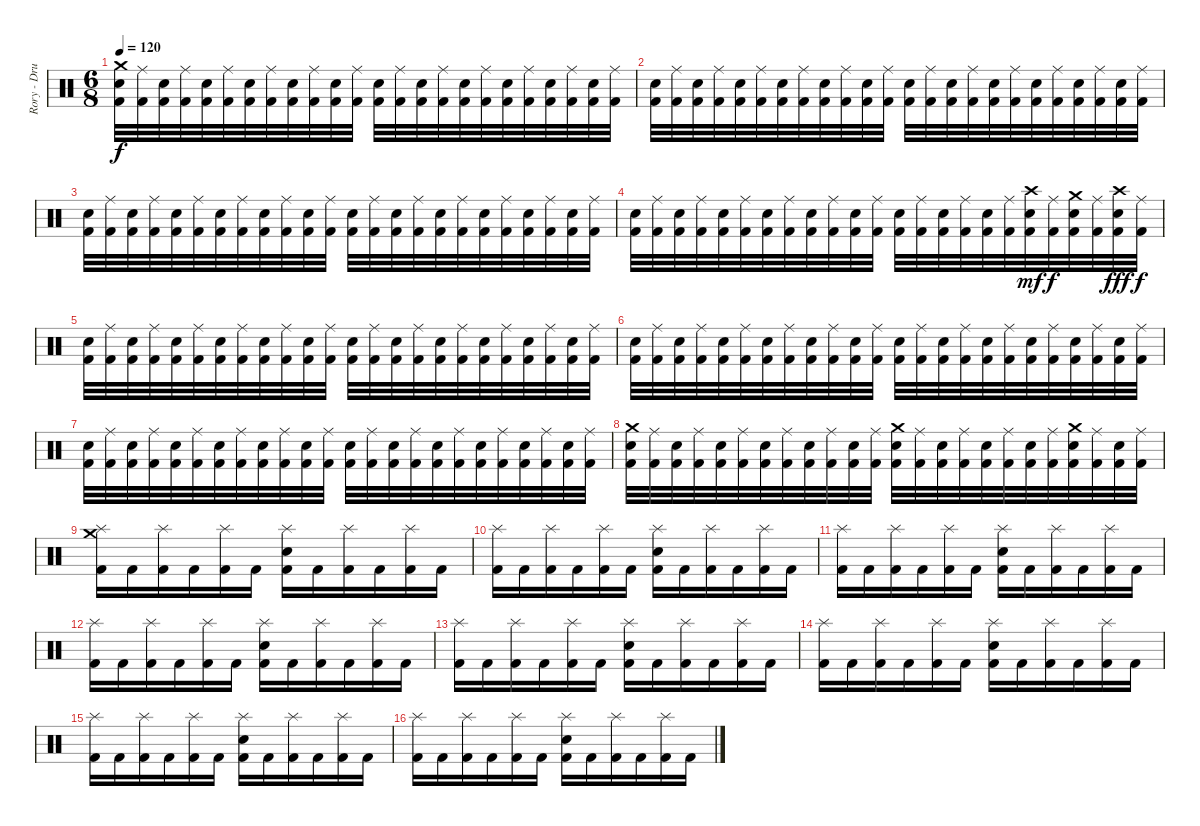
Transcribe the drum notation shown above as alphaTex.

\track ("Rory - Drums" "Rory - Dru") {instrument percussion}
\staff {score}
\articulation defaults
\ts (6 8)
\tempo 120
\clef neutral
\ks c
("Kick (hit) 2" "Electric Snare (hit)" "Crash medium (hit)").32{dy f} ("Kick (hit) 2" "Ride (middle)").32 ("Kick (hit) 2" "Electric Snare (hit)").32 ("Kick (hit) 2" "Ride (middle)").32 ("Kick (hit) 2" "Electric Snare (hit)").32 ("Kick (hit) 2" "Ride (middle)").32 ("Kick (hit) 2" "Electric Snare (hit)").32 ("Kick (hit) 2" "Ride (middle)").32 ("Kick (hit) 2" "Electric Snare (hit)").32 ("Kick (hit) 2" "Ride (middle)").32 ("Kick (hit) 2" "Electric Snare (hit)").32 ("Kick (hit) 2" "Ride (middle)").32 ("Kick (hit) 2" "Electric Snare (hit)").32 ("Kick (hit) 2" "Ride (middle)").32 ("Kick (hit) 2" "Electric Snare (hit)").32 ("Kick (hit) 2" "Ride (middle)").32 ("Kick (hit) 2" "Electric Snare (hit)").32 ("Kick (hit) 2" "Ride (middle)").32 ("Kick (hit) 2" "Electric Snare (hit)").32 ("Kick (hit) 2" "Ride (middle)").32 ("Kick (hit) 2" "Electric Snare (hit)").32 ("Kick (hit) 2" "Ride (middle)").32 ("Kick (hit) 2" "Electric Snare (hit)").32 ("Kick (hit) 2" "Ride (middle)").32 |
("Kick (hit) 2" "Electric Snare (hit)").32 ("Kick (hit) 2" "Ride (middle)").32 ("Kick (hit) 2" "Electric Snare (hit)").32 ("Kick (hit) 2" "Ride (middle)").32 ("Kick (hit) 2" "Electric Snare (hit)").32 ("Kick (hit) 2" "Ride (middle)").32 ("Kick (hit) 2" "Electric Snare (hit)").32 ("Kick (hit) 2" "Ride (middle)").32 ("Kick (hit) 2" "Electric Snare (hit)").32 ("Kick (hit) 2" "Ride (middle)").32 ("Kick (hit) 2" "Electric Snare (hit)").32 ("Kick (hit) 2" "Ride (middle)").32 ("Kick (hit) 2" "Electric Snare (hit)").32 ("Kick (hit) 2" "Ride (middle)").32 ("Kick (hit) 2" "Electric Snare (hit)").32 ("Kick (hit) 2" "Ride (middle)").32 ("Kick (hit) 2" "Electric Snare (hit)").32 ("Kick (hit) 2" "Ride (middle)").32 ("Kick (hit) 2" "Electric Snare (hit)").32 ("Kick (hit) 2" "Ride (middle)").32 ("Kick (hit) 2" "Electric Snare (hit)").32 ("Kick (hit) 2" "Ride (middle)").32 ("Kick (hit) 2" "Electric Snare (hit)").32 ("Kick (hit) 2" "Ride (middle)").32 |
("Kick (hit) 2" "Electric Snare (hit)").32 ("Kick (hit) 2" "Ride (middle)").32 ("Kick (hit) 2" "Electric Snare (hit)").32 ("Kick (hit) 2" "Ride (middle)").32 ("Kick (hit) 2" "Electric Snare (hit)").32 ("Kick (hit) 2" "Ride (middle)").32 ("Kick (hit) 2" "Electric Snare (hit)").32 ("Kick (hit) 2" "Ride (middle)").32 ("Kick (hit) 2" "Electric Snare (hit)").32 ("Kick (hit) 2" "Ride (middle)").32 ("Kick (hit) 2" "Electric Snare (hit)").32 ("Kick (hit) 2" "Ride (middle)").32 ("Kick (hit) 2" "Electric Snare (hit)").32 ("Kick (hit) 2" "Ride (middle)").32 ("Kick (hit) 2" "Electric Snare (hit)").32 ("Kick (hit) 2" "Ride (middle)").32 ("Kick (hit) 2" "Electric Snare (hit)").32 ("Kick (hit) 2" "Ride (middle)").32 ("Kick (hit) 2" "Electric Snare (hit)").32 ("Kick (hit) 2" "Ride (middle)").32 ("Kick (hit) 2" "Electric Snare (hit)").32 ("Kick (hit) 2" "Ride (middle)").32 ("Kick (hit) 2" "Electric Snare (hit)").32 ("Kick (hit) 2" "Ride (middle)").32 |
("Kick (hit) 2" "Electric Snare (hit)").32 ("Kick (hit) 2" "Ride (middle)").32 ("Kick (hit) 2" "Electric Snare (hit)").32 ("Kick (hit) 2" "Ride (middle)").32 ("Kick (hit) 2" "Electric Snare (hit)").32 ("Kick (hit) 2" "Ride (middle)").32 ("Kick (hit) 2" "Electric Snare (hit)").32 ("Kick (hit) 2" "Ride (middle)").32 ("Kick (hit) 2" "Electric Snare (hit)").32 ("Kick (hit) 2" "Ride (middle)").32 ("Kick (hit) 2" "Electric Snare (hit)").32 ("Kick (hit) 2" "Ride (middle)").32 ("Kick (hit) 2" "Electric Snare (hit)").32 ("Kick (hit) 2" "Ride (middle)").32 ("Kick (hit) 2" "Electric Snare (hit)").32 ("Kick (hit) 2" "Ride (middle)").32 ("Kick (hit) 2" "Electric Snare (hit)").32 ("Kick (hit) 2" "Ride (middle)").32 ("Kick (hit) 2" "Crash high (hit)" "Electric Snare (hit)").32{dy mf} ("Kick (hit) 2" "Ride (middle)").32{dy f} ("Kick (hit) 2" "Crash medium (hit)" "Electric Snare (hit)").32 ("Kick (hit) 2" "Ride (middle)").32 ("Kick (hit) 2" "Crash high (hit)" "Electric Snare (hit)").32{dy fff} ("Kick (hit) 2" "Ride (middle)").32{dy f} |
("Kick (hit) 2" "Electric Snare (hit)").32 ("Kick (hit) 2" "Ride (middle)").32 ("Kick (hit) 2" "Electric Snare (hit)").32 ("Kick (hit) 2" "Ride (middle)").32 ("Kick (hit) 2" "Electric Snare (hit)").32 ("Kick (hit) 2" "Ride (middle)").32 ("Kick (hit) 2" "Electric Snare (hit)").32 ("Kick (hit) 2" "Ride (middle)").32 ("Kick (hit) 2" "Electric Snare (hit)").32 ("Kick (hit) 2" "Ride (middle)").32 ("Kick (hit) 2" "Electric Snare (hit)").32 ("Kick (hit) 2" "Ride (middle)").32 ("Kick (hit) 2" "Electric Snare (hit)").32 ("Kick (hit) 2" "Ride (middle)").32 ("Kick (hit) 2" "Electric Snare (hit)").32 ("Kick (hit) 2" "Ride (middle)").32 ("Kick (hit) 2" "Electric Snare (hit)").32 ("Kick (hit) 2" "Ride (middle)").32 ("Kick (hit) 2" "Electric Snare (hit)").32 ("Kick (hit) 2" "Ride (middle)").32 ("Kick (hit) 2" "Electric Snare (hit)").32 ("Kick (hit) 2" "Ride (middle)").32 ("Kick (hit) 2" "Electric Snare (hit)").32 ("Kick (hit) 2" "Ride (middle)").32 |
("Kick (hit) 2" "Electric Snare (hit)").32 ("Kick (hit) 2" "Ride (middle)").32 ("Kick (hit) 2" "Electric Snare (hit)").32 ("Kick (hit) 2" "Ride (middle)").32 ("Kick (hit) 2" "Electric Snare (hit)").32 ("Kick (hit) 2" "Ride (middle)").32 ("Kick (hit) 2" "Electric Snare (hit)").32 ("Kick (hit) 2" "Ride (middle)").32 ("Kick (hit) 2" "Electric Snare (hit)").32 ("Kick (hit) 2" "Ride (middle)").32 ("Kick (hit) 2" "Electric Snare (hit)").32 ("Kick (hit) 2" "Ride (middle)").32 ("Kick (hit) 2" "Electric Snare (hit)").32 ("Kick (hit) 2" "Ride (middle)").32 ("Kick (hit) 2" "Electric Snare (hit)").32 ("Kick (hit) 2" "Ride (middle)").32 ("Kick (hit) 2" "Electric Snare (hit)").32 ("Kick (hit) 2" "Ride (middle)").32 ("Kick (hit) 2" "Electric Snare (hit)").32 ("Kick (hit) 2" "Ride (middle)").32 ("Kick (hit) 2" "Electric Snare (hit)").32 ("Kick (hit) 2" "Ride (middle)").32 ("Kick (hit) 2" "Electric Snare (hit)").32 ("Kick (hit) 2" "Ride (middle)").32 |
("Kick (hit) 2" "Electric Snare (hit)").32 ("Kick (hit) 2" "Ride (middle)").32 ("Kick (hit) 2" "Electric Snare (hit)").32 ("Kick (hit) 2" "Ride (middle)").32 ("Kick (hit) 2" "Electric Snare (hit)").32 ("Kick (hit) 2" "Ride (middle)").32 ("Kick (hit) 2" "Electric Snare (hit)").32 ("Kick (hit) 2" "Ride (middle)").32 ("Kick (hit) 2" "Electric Snare (hit)").32 ("Kick (hit) 2" "Ride (middle)").32 ("Kick (hit) 2" "Electric Snare (hit)").32 ("Kick (hit) 2" "Ride (middle)").32 ("Kick (hit) 2" "Electric Snare (hit)").32 ("Kick (hit) 2" "Ride (middle)").32 ("Kick (hit) 2" "Electric Snare (hit)").32 ("Kick (hit) 2" "Ride (middle)").32 ("Kick (hit) 2" "Electric Snare (hit)").32 ("Kick (hit) 2" "Ride (middle)").32 ("Kick (hit) 2" "Electric Snare (hit)").32 ("Kick (hit) 2" "Ride (middle)").32 ("Kick (hit) 2" "Electric Snare (hit)").32 ("Kick (hit) 2" "Ride (middle)").32 ("Kick (hit) 2" "Electric Snare (hit)").32 ("Kick (hit) 2" "Ride (middle)").32 |
("Kick (hit) 2" "Electric Snare (hit)" "Crash medium (hit)").32 ("Kick (hit) 2" "Ride (middle)").32 ("Kick (hit) 2" "Electric Snare (hit)").32 ("Kick (hit) 2" "Ride (middle)").32 ("Kick (hit) 2" "Electric Snare (hit)").32 ("Kick (hit) 2" "Ride (middle)").32 ("Kick (hit) 2" "Electric Snare (hit)").32 ("Kick (hit) 2" "Ride (middle)").32 ("Kick (hit) 2" "Electric Snare (hit)").32 ("Kick (hit) 2" "Ride (middle)").32 ("Kick (hit) 2" "Electric Snare (hit)").32 ("Kick (hit) 2" "Ride (middle)").32 ("Kick (hit) 2" "Crash medium (hit)" "Electric Snare (hit)").32 ("Kick (hit) 2" "Ride (middle)").32 ("Kick (hit) 2" "Electric Snare (hit)").32 ("Kick (hit) 2" "Ride (middle)").32 ("Kick (hit) 2" "Electric Snare (hit)").32 ("Kick (hit) 2" "Ride (middle)").32 ("Kick (hit) 2" "Electric Snare (hit)").32 ("Kick (hit) 2" "Ride (middle)").32 ("Kick (hit) 2" "Crash medium (hit)" "Electric Snare (hit)").32 ("Kick (hit) 2" "Ride (middle)").32 ("Kick (hit) 2" "Electric Snare (hit)").32 ("Kick (hit) 2" "Ride (middle)").32 |
("Kick (hit) 2" "Crash medium (hit)" "Splash (hit)").16 "Kick (hit) 2".16 ("Kick (hit) 2" "Splash (hit)").16 "Kick (hit) 2".16 ("Kick (hit) 2" "Splash (hit)").16 "Kick (hit) 2".16 ("Kick (hit) 2" "Electric Snare (hit)" "Splash (hit)").16 "Kick (hit) 2".16 ("Kick (hit) 2" "Splash (hit)").16 "Kick (hit) 2".16 ("Kick (hit) 2" "Splash (hit)").16 "Kick (hit) 2".16 |
("Kick (hit) 2" "Splash (hit)").16 "Kick (hit) 2".16 ("Kick (hit) 2" "Splash (hit)").16 "Kick (hit) 2".16 ("Kick (hit) 2" "Splash (hit)").16 "Kick (hit) 2".16 ("Kick (hit) 2" "Electric Snare (hit)" "Splash (hit)").16 "Kick (hit) 2".16 ("Kick (hit) 2" "Splash (hit)").16 "Kick (hit) 2".16 ("Kick (hit) 2" "Splash (hit)").16 "Kick (hit) 2".16 |
("Kick (hit) 2" "Splash (hit)").16 "Kick (hit) 2".16 ("Kick (hit) 2" "Splash (hit)").16 "Kick (hit) 2".16 ("Kick (hit) 2" "Splash (hit)").16 "Kick (hit) 2".16 ("Kick (hit) 2" "Electric Snare (hit)" "Splash (hit)").16 "Kick (hit) 2".16 ("Kick (hit) 2" "Splash (hit)").16 "Kick (hit) 2".16 ("Kick (hit) 2" "Splash (hit)").16 "Kick (hit) 2".16 |
("Kick (hit) 2" "Splash (hit)").16 "Kick (hit) 2".16 ("Kick (hit) 2" "Splash (hit)").16 "Kick (hit) 2".16 ("Kick (hit) 2" "Splash (hit)").16 "Kick (hit) 2".16 ("Kick (hit) 2" "Electric Snare (hit)" "Splash (hit)").16 "Kick (hit) 2".16 ("Kick (hit) 2" "Splash (hit)").16 "Kick (hit) 2".16 ("Kick (hit) 2" "Splash (hit)").16 "Kick (hit) 2".16 |
("Kick (hit) 2" "Splash (hit)").16 "Kick (hit) 2".16 ("Kick (hit) 2" "Splash (hit)").16 "Kick (hit) 2".16 ("Kick (hit) 2" "Splash (hit)").16 "Kick (hit) 2".16 ("Kick (hit) 2" "Electric Snare (hit)" "Splash (hit)").16 "Kick (hit) 2".16 ("Kick (hit) 2" "Splash (hit)").16 "Kick (hit) 2".16 ("Kick (hit) 2" "Splash (hit)").16 "Kick (hit) 2".16 |
("Kick (hit) 2" "Splash (hit)").16 "Kick (hit) 2".16 ("Kick (hit) 2" "Splash (hit)").16 "Kick (hit) 2".16 ("Kick (hit) 2" "Splash (hit)").16 "Kick (hit) 2".16 ("Kick (hit) 2" "Electric Snare (hit)" "Splash (hit)").16 "Kick (hit) 2".16 ("Kick (hit) 2" "Splash (hit)").16 "Kick (hit) 2".16 ("Kick (hit) 2" "Splash (hit)").16 "Kick (hit) 2".16 |
("Kick (hit) 2" "Splash (hit)").16 "Kick (hit) 2".16 ("Kick (hit) 2" "Splash (hit)").16 "Kick (hit) 2".16 ("Kick (hit) 2" "Splash (hit)").16 "Kick (hit) 2".16 ("Kick (hit) 2" "Electric Snare (hit)" "Splash (hit)").16 "Kick (hit) 2".16 ("Kick (hit) 2" "Splash (hit)").16 "Kick (hit) 2".16 ("Kick (hit) 2" "Splash (hit)").16 "Kick (hit) 2".16 |
("Kick (hit) 2" "Splash (hit)").16 "Kick (hit) 2".16 ("Kick (hit) 2" "Splash (hit)").16 "Kick (hit) 2".16 ("Kick (hit) 2" "Splash (hit)").16 "Kick (hit) 2".16 ("Kick (hit) 2" "Electric Snare (hit)" "Splash (hit)").16 "Kick (hit) 2".16 ("Kick (hit) 2" "Splash (hit)").16 "Kick (hit) 2".16 ("Kick (hit) 2" "Splash (hit)").16 "Kick (hit) 2".16
